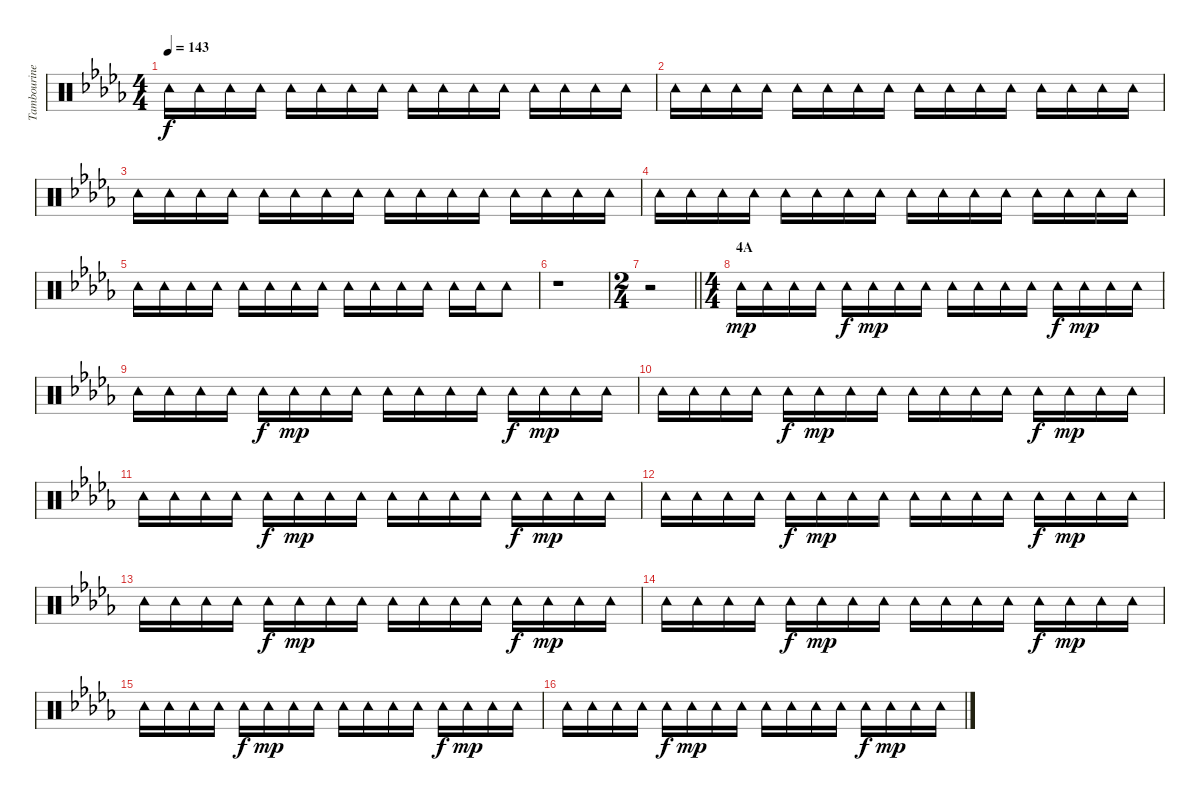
\track ("Tambourine" "Tambourine") {instrument percussion}
\staff {score}
\articulation defaults
\ts (4 4)
\tempo 143
\clef neutral
\ks db "Tambourine (hit)".16{dy f} "Tambourine (hit)".16 "Tambourine (hit)".16 "Tambourine (hit)".16 "Tambourine (hit)".16 "Tambourine (hit)".16 "Tambourine (hit)".16 "Tambourine (hit)".16 "Tambourine (hit)".16 "Tambourine (hit)".16 "Tambourine (hit)".16 "Tambourine (hit)".16 "Tambourine (hit)".16 "Tambourine (hit)".16 "Tambourine (hit)".16 "Tambourine (hit)".16
|
"Tambourine (hit)".16 "Tambourine (hit)".16 "Tambourine (hit)".16 "Tambourine (hit)".16 "Tambourine (hit)".16 "Tambourine (hit)".16 "Tambourine (hit)".16 "Tambourine (hit)".16 "Tambourine (hit)".16 "Tambourine (hit)".16 "Tambourine (hit)".16 "Tambourine (hit)".16 "Tambourine (hit)".16 "Tambourine (hit)".16 "Tambourine (hit)".16 "Tambourine (hit)".16 |
"Tambourine (hit)".16 "Tambourine (hit)".16 "Tambourine (hit)".16 "Tambourine (hit)".16 "Tambourine (hit)".16 "Tambourine (hit)".16 "Tambourine (hit)".16 "Tambourine (hit)".16 "Tambourine (hit)".16 "Tambourine (hit)".16 "Tambourine (hit)".16 "Tambourine (hit)".16 "Tambourine (hit)".16 "Tambourine (hit)".16 "Tambourine (hit)".16 "Tambourine (hit)".16 |
"Tambourine (hit)".16 "Tambourine (hit)".16 "Tambourine (hit)".16 "Tambourine (hit)".16 "Tambourine (hit)".16 "Tambourine (hit)".16 "Tambourine (hit)".16 "Tambourine (hit)".16 "Tambourine (hit)".16 "Tambourine (hit)".16 "Tambourine (hit)".16 "Tambourine (hit)".16 "Tambourine (hit)".16 "Tambourine (hit)".16 "Tambourine (hit)".16 "Tambourine (hit)".16 |
"Tambourine (hit)".16 "Tambourine (hit)".16 "Tambourine (hit)".16 "Tambourine (hit)".16 "Tambourine (hit)".16 "Tambourine (hit)".16 "Tambourine (hit)".16 "Tambourine (hit)".16 "Tambourine (hit)".16 "Tambourine (hit)".16 "Tambourine (hit)".16 "Tambourine (hit)".16 "Tambourine (hit)".16 "Tambourine (hit)".16 "Tambourine (hit)".8 |
r.1 |
\ts (2 4)
\barLineRight lightlight
r.2 |
\ts (4 4)
\section ("" "4A")
"Tambourine (hit)".16{dy mp} "Tambourine (hit)".16 "Tambourine (hit)".16 "Tambourine (hit)".16 "Tambourine (hit)".16{dy f} "Tambourine (hit)".16{dy mp} "Tambourine (hit)".16 "Tambourine (hit)".16 "Tambourine (hit)".16 "Tambourine (hit)".16 "Tambourine (hit)".16 "Tambourine (hit)".16 "Tambourine (hit)".16{dy f} "Tambourine (hit)".16{dy mp} "Tambourine (hit)".16 "Tambourine (hit)".16 |
"Tambourine (hit)".16 "Tambourine (hit)".16 "Tambourine (hit)".16 "Tambourine (hit)".16 "Tambourine (hit)".16{dy f} "Tambourine (hit)".16{dy mp} "Tambourine (hit)".16 "Tambourine (hit)".16 "Tambourine (hit)".16 "Tambourine (hit)".16 "Tambourine (hit)".16 "Tambourine (hit)".16 "Tambourine (hit)".16{dy f} "Tambourine (hit)".16{dy mp} "Tambourine (hit)".16 "Tambourine (hit)".16 |
"Tambourine (hit)".16 "Tambourine (hit)".16 "Tambourine (hit)".16 "Tambourine (hit)".16 "Tambourine (hit)".16{dy f} "Tambourine (hit)".16{dy mp} "Tambourine (hit)".16 "Tambourine (hit)".16 "Tambourine (hit)".16 "Tambourine (hit)".16 "Tambourine (hit)".16 "Tambourine (hit)".16 "Tambourine (hit)".16{dy f} "Tambourine (hit)".16{dy mp} "Tambourine (hit)".16 "Tambourine (hit)".16 |
"Tambourine (hit)".16 "Tambourine (hit)".16 "Tambourine (hit)".16 "Tambourine (hit)".16 "Tambourine (hit)".16{dy f} "Tambourine (hit)".16{dy mp} "Tambourine (hit)".16 "Tambourine (hit)".16 "Tambourine (hit)".16 "Tambourine (hit)".16 "Tambourine (hit)".16 "Tambourine (hit)".16 "Tambourine (hit)".16{dy f} "Tambourine (hit)".16{dy mp} "Tambourine (hit)".16 "Tambourine (hit)".16 |
"Tambourine (hit)".16 "Tambourine (hit)".16 "Tambourine (hit)".16 "Tambourine (hit)".16 "Tambourine (hit)".16{dy f} "Tambourine (hit)".16{dy mp} "Tambourine (hit)".16 "Tambourine (hit)".16 "Tambourine (hit)".16 "Tambourine (hit)".16 "Tambourine (hit)".16 "Tambourine (hit)".16 "Tambourine (hit)".16{dy f} "Tambourine (hit)".16{dy mp} "Tambourine (hit)".16 "Tambourine (hit)".16 |
"Tambourine (hit)".16 "Tambourine (hit)".16 "Tambourine (hit)".16 "Tambourine (hit)".16 "Tambourine (hit)".16{dy f} "Tambourine (hit)".16{dy mp} "Tambourine (hit)".16 "Tambourine (hit)".16 "Tambourine (hit)".16 "Tambourine (hit)".16 "Tambourine (hit)".16 "Tambourine (hit)".16 "Tambourine (hit)".16{dy f} "Tambourine (hit)".16{dy mp} "Tambourine (hit)".16 "Tambourine (hit)".16 |
"Tambourine (hit)".16 "Tambourine (hit)".16 "Tambourine (hit)".16 "Tambourine (hit)".16 "Tambourine (hit)".16{dy f} "Tambourine (hit)".16{dy mp} "Tambourine (hit)".16 "Tambourine (hit)".16 "Tambourine (hit)".16 "Tambourine (hit)".16 "Tambourine (hit)".16 "Tambourine (hit)".16 "Tambourine (hit)".16{dy f} "Tambourine (hit)".16{dy mp} "Tambourine (hit)".16 "Tambourine (hit)".16 |
"Tambourine (hit)".16 "Tambourine (hit)".16 "Tambourine (hit)".16 "Tambourine (hit)".16 "Tambourine (hit)".16{dy f} "Tambourine (hit)".16{dy mp} "Tambourine (hit)".16 "Tambourine (hit)".16 "Tambourine (hit)".16 "Tambourine (hit)".16 "Tambourine (hit)".16 "Tambourine (hit)".16 "Tambourine (hit)".16{dy f} "Tambourine (hit)".16{dy mp} "Tambourine (hit)".16 "Tambourine (hit)".16 |
"Tambourine (hit)".16 "Tambourine (hit)".16 "Tambourine (hit)".16 "Tambourine (hit)".16 "Tambourine (hit)".16{dy f} "Tambourine (hit)".16{dy mp} "Tambourine (hit)".16 "Tambourine (hit)".16 "Tambourine (hit)".16 "Tambourine (hit)".16 "Tambourine (hit)".16 "Tambourine (hit)".16 "Tambourine (hit)".16{dy f} "Tambourine (hit)".16{dy mp} "Tambourine (hit)".16 "Tambourine (hit)".16
